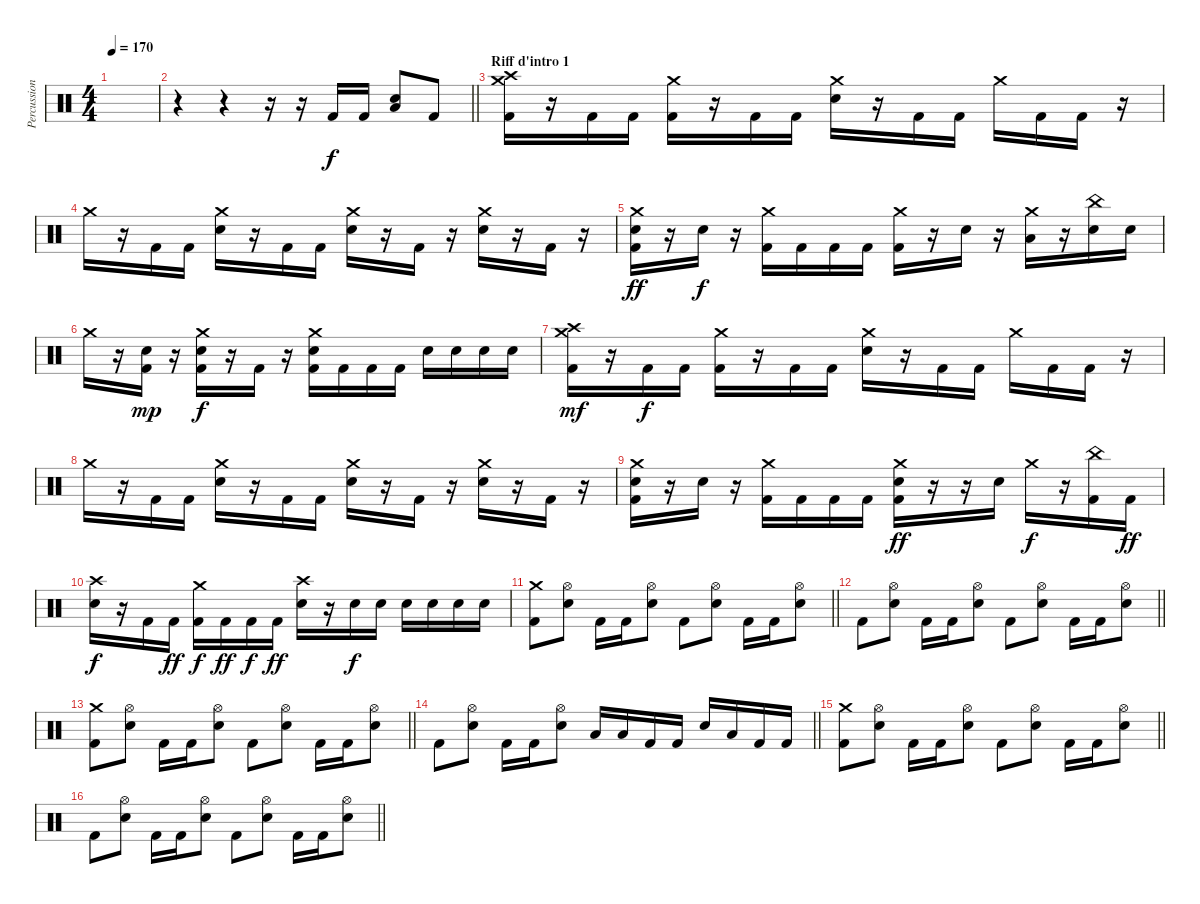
\track ("Percussions" "Percussion") {instrument percussion}
\staff {score}
\articulation defaults
\ts (4 4)
\tempo 170
\clef neutral
\ks c
|
\barLineRight lightlight
r.4 r.4 r.16 r.16 "Kick (hit) 2".16 "Kick (hit) 2".16 ("Electric Snare (hit)" "Low Floor Tom (hit)").8 "Kick (hit) 2".8 |
\section ("" "Riff d'intro 1")
("Crash medium (hit)" "Crash high (hit)" "Kick (hit) 2").16 r.16 "Kick (hit) 2".16 "Kick (hit) 2".16 ("Crash medium (hit)" "Kick (hit) 2").16 r.16 "Kick (hit) 2".16 "Kick (hit) 2".16 ("Crash medium (hit)" "Electric Snare (hit)").16 r.16 "Kick (hit) 2".16 "Kick (hit) 2".16 "Crash medium (hit)".16 "Kick (hit) 2".16 "Kick (hit) 2".16 r.16 |
"Crash medium (hit)".16 r.16 "Kick (hit) 2".16 "Kick (hit) 2".16 ("Crash medium (hit)" "Electric Snare (hit)").16 r.16 "Kick (hit) 2".16 "Kick (hit) 2".16 ("Crash medium (hit)" "Electric Snare (hit)").16 r.16 "Kick (hit) 2".16 r.16 ("Crash medium (hit)" "Electric Snare (hit)").16 r.16 "Kick (hit) 2".16 r.16 |
("Crash medium (hit)" "Electric Snare (hit)" "Kick (hit) 2").16{dy ff} r.16 "Electric Snare (hit)".16{dy f} r.16 ("Crash medium (hit)" "Kick (hit) 2").16 "Kick (hit) 2".16 "Kick (hit) 2".16 "Kick (hit) 2".16 ("Crash medium (hit)" "Kick (hit) 2").16 r.16 "Electric Snare (hit)".16 r.16 ("Crash medium (hit)" "Low Tom (hit)").16 r.16 ("China (hit)" "Electric Snare (hit)").16 "Electric Snare (hit)".16 |
"Crash medium (hit)".16 r.16 ("Electric Snare (hit)" "Kick (hit) 2").16{dy mp} r.16 ("Crash medium (hit)" "Electric Snare (hit)" "Kick (hit) 2").16{dy f} r.16 "Kick (hit) 2".16 r.16 ("Crash medium (hit)" "Electric Snare (hit)" "Kick (hit) 2").16 "Kick (hit) 2".16 "Kick (hit) 2".16 "Kick (hit) 2".16 "Electric Snare (hit)".16 "Electric Snare (hit)".16 "Electric Snare (hit)".16 "Electric Snare (hit)".16 |
("Crash medium (hit)" "Crash high (hit)" "Kick (hit) 2").16{dy mf} r.16 "Kick (hit) 2".16{dy f} "Kick (hit) 2".16 ("Crash medium (hit)" "Kick (hit) 2").16 r.16 "Kick (hit) 2".16 "Kick (hit) 2".16 ("Crash medium (hit)" "Electric Snare (hit)").16 r.16 "Kick (hit) 2".16 "Kick (hit) 2".16 "Crash medium (hit)".16 "Kick (hit) 2".16 "Kick (hit) 2".16 r.16 |
"Crash medium (hit)".16 r.16 "Kick (hit) 2".16 "Kick (hit) 2".16 ("Crash medium (hit)" "Electric Snare (hit)").16 r.16 "Kick (hit) 2".16 "Kick (hit) 2".16 ("Crash medium (hit)" "Electric Snare (hit)").16 r.16 "Kick (hit) 2".16 r.16 ("Crash medium (hit)" "Electric Snare (hit)").16 r.16 "Kick (hit) 2".16 r.16 |
("Crash medium (hit)" "Electric Snare (hit)" "Kick (hit) 2").16 r.16 "Electric Snare (hit)".16 r.16 ("Crash medium (hit)" "Kick (hit) 2").16 "Kick (hit) 2".16 "Kick (hit) 2".16 "Kick (hit) 2".16 ("Crash medium (hit)" "Electric Snare (hit)" "Kick (hit) 2").16{dy ff} r.16 r.16 "Electric Snare (hit)".16 "Crash medium (hit)".16{dy f} r.16 ("China (hit)" "Kick (hit) 2").16 "Kick (hit) 2".16{dy ff} |
("Crash high (hit)" "Electric Snare (hit)").16{dy f} r.16 "Kick (hit) 2".16 "Kick (hit) 2".16{dy ff} ("Crash medium (hit)" "Kick (hit) 2").16{dy f} "Kick (hit) 2".16{dy ff} "Kick (hit) 2".16{dy f} "Kick (hit) 2".16{dy ff} ("Crash high (hit)" "Electric Snare (hit)").16 r.16 "Electric Snare (hit)".16{dy f} "Electric Snare (hit)".16 "Electric Snare (hit)".16 "Electric Snare (hit)".16 "Electric Snare (hit)".16 "Electric Snare (hit)".16 |
\barLineRight lightlight
("Crash medium (hit)" "Kick (hit) 2").8 ("Hi-Hat (open)" "Electric Snare (hit)").8 "Kick (hit) 2".16 "Kick (hit) 2".16 ("Hi-Hat (open)" "Electric Snare (hit)").8 "Kick (hit) 2".8 ("Hi-Hat (open)" "Electric Snare (hit)").8 "Kick (hit) 2".16 "Kick (hit) 2".16 ("Hi-Hat (open)" "Electric Snare (hit)").8 |
\barLineRight lightlight "Kick (hit) 2".8
("Hi-Hat (open)" "Electric Snare (hit)").8 "Kick (hit) 2".16 "Kick (hit) 2".16 ("Hi-Hat (open)" "Electric Snare (hit)").8 "Kick (hit) 2".8 ("Hi-Hat (open)" "Electric Snare (hit)").8 "Kick (hit) 2".16 "Kick (hit) 2".16 ("Hi-Hat (open)" "Electric Snare (hit)").8 |
\barLineRight lightlight
("Crash medium (hit)" "Kick (hit) 2").8 ("Hi-Hat (open)" "Electric Snare (hit)").8 "Kick (hit) 2".16 "Kick (hit) 2".16 ("Hi-Hat (open)" "Electric Snare (hit)").8 "Kick (hit) 2".8 ("Hi-Hat (open)" "Electric Snare (hit)").8 "Kick (hit) 2".16 "Kick (hit) 2".16 ("Hi-Hat (open)" "Electric Snare (hit)").8 |
\barLineRight lightlight "Kick (hit) 2".8
("Hi-Hat (open)" "Electric Snare (hit)").8 "Kick (hit) 2".16 "Kick (hit) 2".16 ("Hi-Hat (open)" "Electric Snare (hit)").8 "Low Tom (hit)".16 "Low Tom (hit)".16 "Kick (hit) 2".16 "Kick (hit) 2".16 "Electric Snare (hit)".16 "Low Tom (hit)".16 "Kick (hit) 2".16 "Kick (hit) 2".16 |
\barLineRight lightlight
("Crash medium (hit)" "Kick (hit) 2").8 ("Hi-Hat (open)" "Electric Snare (hit)").8 "Kick (hit) 2".16 "Kick (hit) 2".16 ("Hi-Hat (open)" "Electric Snare (hit)").8 "Kick (hit) 2".8 ("Hi-Hat (open)" "Electric Snare (hit)").8 "Kick (hit) 2".16 "Kick (hit) 2".16 ("Hi-Hat (open)" "Electric Snare (hit)").8 |
\barLineRight lightlight "Kick (hit) 2".8
("Hi-Hat (open)" "Electric Snare (hit)").8 "Kick (hit) 2".16 "Kick (hit) 2".16 ("Hi-Hat (open)" "Electric Snare (hit)").8 "Kick (hit) 2".8 ("Hi-Hat (open)" "Electric Snare (hit)").8 "Kick (hit) 2".16 "Kick (hit) 2".16 ("Hi-Hat (open)" "Electric Snare (hit)").8
